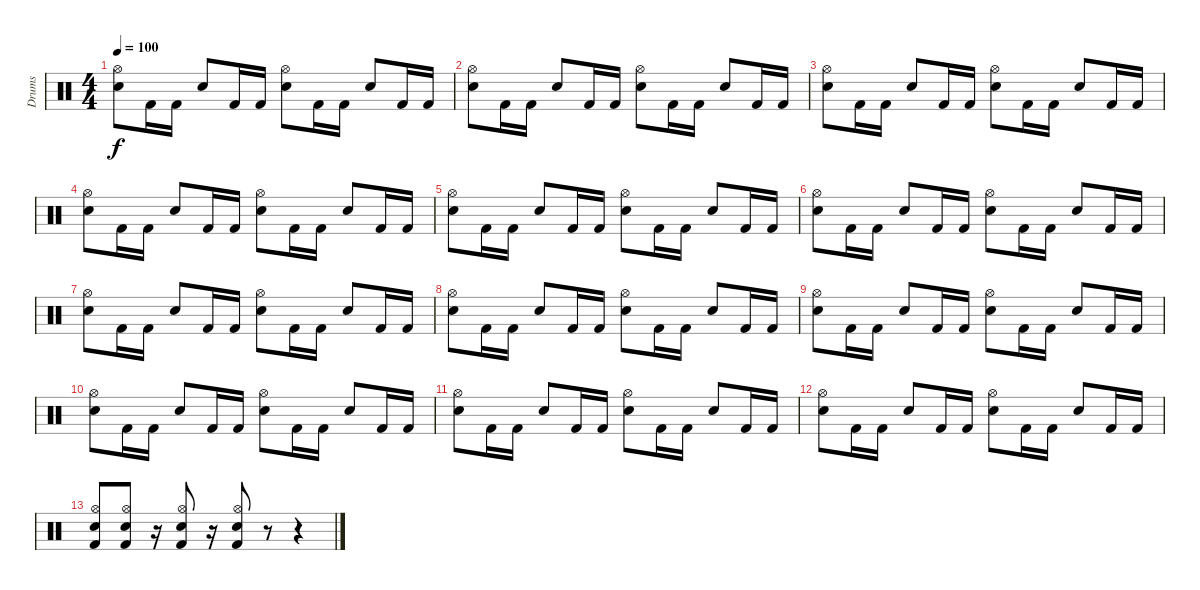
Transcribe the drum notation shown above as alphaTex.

\track ("Drums" "Drums") {instrument percussion}
\staff {score}
\articulation defaults
\ts (4 4)
\tempo 100
\clef neutral
\ks c
("Snare (hit) 2" "Hi-Hat (open)").8{dy f} "Kick (hit) 2".16 "Kick (hit) 2".16 "Snare (hit) 2".8 "Kick (hit) 2".16 "Kick (hit) 2".16 ("Snare (hit) 2" "Hi-Hat (open)").8 "Kick (hit) 2".16 "Kick (hit) 2".16 "Snare (hit) 2".8 "Kick (hit) 2".16 "Kick (hit) 2".16 |
("Snare (hit) 2" "Hi-Hat (open)").8 "Kick (hit) 2".16 "Kick (hit) 2".16 "Snare (hit) 2".8 "Kick (hit) 2".16 "Kick (hit) 2".16 ("Snare (hit) 2" "Hi-Hat (open)").8 "Kick (hit) 2".16 "Kick (hit) 2".16 "Snare (hit) 2".8 "Kick (hit) 2".16 "Kick (hit) 2".16 |
("Snare (hit) 2" "Hi-Hat (open)").8 "Kick (hit) 2".16 "Kick (hit) 2".16 "Snare (hit) 2".8 "Kick (hit) 2".16 "Kick (hit) 2".16 ("Snare (hit) 2" "Hi-Hat (open)").8 "Kick (hit) 2".16 "Kick (hit) 2".16 "Snare (hit) 2".8 "Kick (hit) 2".16 "Kick (hit) 2".16 |
("Snare (hit) 2" "Hi-Hat (open)").8 "Kick (hit) 2".16 "Kick (hit) 2".16 "Snare (hit) 2".8 "Kick (hit) 2".16 "Kick (hit) 2".16 ("Snare (hit) 2" "Hi-Hat (open)").8 "Kick (hit) 2".16 "Kick (hit) 2".16 "Snare (hit) 2".8 "Kick (hit) 2".16 "Kick (hit) 2".16 |
("Snare (hit) 2" "Hi-Hat (open)").8 "Kick (hit) 2".16 "Kick (hit) 2".16 "Snare (hit) 2".8 "Kick (hit) 2".16 "Kick (hit) 2".16 ("Snare (hit) 2" "Hi-Hat (open)").8 "Kick (hit) 2".16 "Kick (hit) 2".16 "Snare (hit) 2".8 "Kick (hit) 2".16 "Kick (hit) 2".16 |
("Snare (hit) 2" "Hi-Hat (open)").8 "Kick (hit) 2".16 "Kick (hit) 2".16 "Snare (hit) 2".8 "Kick (hit) 2".16 "Kick (hit) 2".16 ("Snare (hit) 2" "Hi-Hat (open)").8 "Kick (hit) 2".16 "Kick (hit) 2".16 "Snare (hit) 2".8 "Kick (hit) 2".16 "Kick (hit) 2".16 |
("Snare (hit) 2" "Hi-Hat (open)").8 "Kick (hit) 2".16 "Kick (hit) 2".16 "Snare (hit) 2".8 "Kick (hit) 2".16 "Kick (hit) 2".16 ("Snare (hit) 2" "Hi-Hat (open)").8 "Kick (hit) 2".16 "Kick (hit) 2".16 "Snare (hit) 2".8 "Kick (hit) 2".16 "Kick (hit) 2".16 |
("Snare (hit) 2" "Hi-Hat (open)").8 "Kick (hit) 2".16 "Kick (hit) 2".16 "Snare (hit) 2".8 "Kick (hit) 2".16 "Kick (hit) 2".16 ("Snare (hit) 2" "Hi-Hat (open)").8 "Kick (hit) 2".16 "Kick (hit) 2".16 "Snare (hit) 2".8 "Kick (hit) 2".16 "Kick (hit) 2".16 |
("Snare (hit) 2" "Hi-Hat (open)").8 "Kick (hit) 2".16 "Kick (hit) 2".16 "Snare (hit) 2".8 "Kick (hit) 2".16 "Kick (hit) 2".16 ("Snare (hit) 2" "Hi-Hat (open)").8 "Kick (hit) 2".16 "Kick (hit) 2".16 "Snare (hit) 2".8 "Kick (hit) 2".16 "Kick (hit) 2".16 |
("Snare (hit) 2" "Hi-Hat (open)").8 "Kick (hit) 2".16 "Kick (hit) 2".16 "Snare (hit) 2".8 "Kick (hit) 2".16 "Kick (hit) 2".16 ("Snare (hit) 2" "Hi-Hat (open)").8 "Kick (hit) 2".16 "Kick (hit) 2".16 "Snare (hit) 2".8 "Kick (hit) 2".16 "Kick (hit) 2".16 |
("Snare (hit) 2" "Hi-Hat (open)").8 "Kick (hit) 2".16 "Kick (hit) 2".16 "Snare (hit) 2".8 "Kick (hit) 2".16 "Kick (hit) 2".16 ("Snare (hit) 2" "Hi-Hat (open)").8 "Kick (hit) 2".16 "Kick (hit) 2".16 "Snare (hit) 2".8 "Kick (hit) 2".16 "Kick (hit) 2".16 |
("Snare (hit) 2" "Hi-Hat (open)").8 "Kick (hit) 2".16 "Kick (hit) 2".16 "Snare (hit) 2".8 "Kick (hit) 2".16 "Kick (hit) 2".16 ("Snare (hit) 2" "Hi-Hat (open)").8 "Kick (hit) 2".16 "Kick (hit) 2".16 "Snare (hit) 2".8 "Kick (hit) 2".16 "Kick (hit) 2".16 |
("Kick (hit) 2" "Snare (hit) 2" "Hi-Hat (open)").8 ("Kick (hit) 2" "Snare (hit) 2" "Hi-Hat (open)").8 r.16 ("Kick (hit) 2" "Snare (hit) 2" "Hi-Hat (open)").8 r.16 ("Kick (hit) 2" "Snare (hit) 2" "Hi-Hat (open)").8 r.8 r.4
